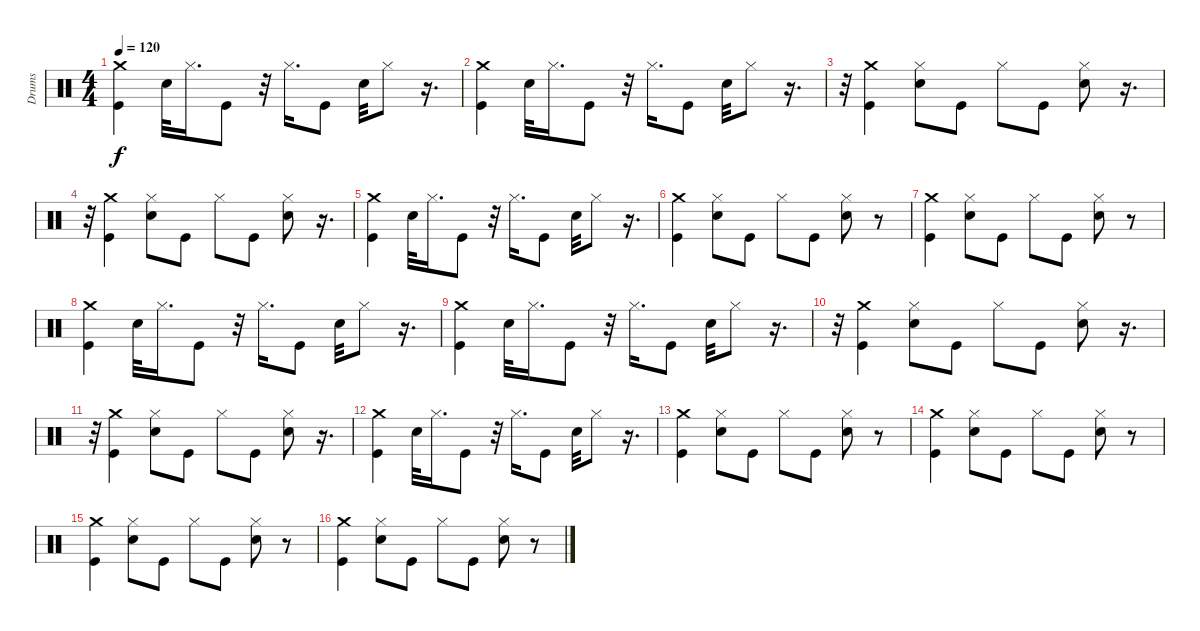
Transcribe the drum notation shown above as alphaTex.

\track ("Drums" "Drums") {instrument percussion}
\staff {score}
\articulation defaults
\ts (4 4)
\tempo 120
\clef neutral
\ks c
("Crash medium (hit)" "Kick (hit)").4{dy f} "Electric Snare (hit)".32 "Hi-Hat (closed)".16{d} "Kick (hit)".8 r.32 "Hi-Hat (closed)".16{d} "Kick (hit)".8 "Electric Snare (hit)".32 "Hi-Hat (closed)".8 r.16{d} |
("Crash medium (hit)" "Kick (hit)").4 "Electric Snare (hit)".32 "Hi-Hat (closed)".16{d} "Kick (hit)".8 r.32 "Hi-Hat (closed)".16{d} "Kick (hit)".8 "Electric Snare (hit)".32 "Hi-Hat (closed)".8 r.16{d} |
r.32 ("Crash medium (hit)" "Kick (hit)").4 ("Electric Snare (hit)" "Hi-Hat (closed)").8 "Kick (hit)".8 "Hi-Hat (closed)".8 "Kick (hit)".8 ("Electric Snare (hit)" "Hi-Hat (closed)").8 r.16{d} |
r.32 ("Crash medium (hit)" "Kick (hit)").4 ("Electric Snare (hit)" "Hi-Hat (closed)").8 "Kick (hit)".8 "Hi-Hat (closed)".8 "Kick (hit)".8 ("Electric Snare (hit)" "Hi-Hat (closed)").8 r.16{d} |
("Crash medium (hit)" "Kick (hit)").4 "Electric Snare (hit)".32 "Hi-Hat (closed)".16{d} "Kick (hit)".8 r.32 "Hi-Hat (closed)".16{d} "Kick (hit)".8 "Electric Snare (hit)".32 "Hi-Hat (closed)".8 r.16{d} |
("Crash medium (hit)" "Kick (hit)").4 ("Electric Snare (hit)" "Hi-Hat (closed)").8 "Kick (hit)".8 "Hi-Hat (closed)".8 "Kick (hit)".8 ("Electric Snare (hit)" "Hi-Hat (closed)").8 r.8 |
("Crash medium (hit)" "Kick (hit)").4 ("Electric Snare (hit)" "Hi-Hat (closed)").8 "Kick (hit)".8 "Hi-Hat (closed)".8 "Kick (hit)".8 ("Electric Snare (hit)" "Hi-Hat (closed)").8 r.8 |
("Crash medium (hit)" "Kick (hit)").4 "Electric Snare (hit)".32 "Hi-Hat (closed)".16{d} "Kick (hit)".8 r.32 "Hi-Hat (closed)".16{d} "Kick (hit)".8 "Electric Snare (hit)".32 "Hi-Hat (closed)".8 r.16{d} |
("Crash medium (hit)" "Kick (hit)").4 "Electric Snare (hit)".32 "Hi-Hat (closed)".16{d} "Kick (hit)".8 r.32 "Hi-Hat (closed)".16{d} "Kick (hit)".8 "Electric Snare (hit)".32 "Hi-Hat (closed)".8 r.16{d} |
r.32 ("Crash medium (hit)" "Kick (hit)").4 ("Electric Snare (hit)" "Hi-Hat (closed)").8 "Kick (hit)".8 "Hi-Hat (closed)".8 "Kick (hit)".8 ("Electric Snare (hit)" "Hi-Hat (closed)").8 r.16{d} |
r.32 ("Crash medium (hit)" "Kick (hit)").4 ("Electric Snare (hit)" "Hi-Hat (closed)").8 "Kick (hit)".8 "Hi-Hat (closed)".8 "Kick (hit)".8 ("Electric Snare (hit)" "Hi-Hat (closed)").8 r.16{d} |
("Crash medium (hit)" "Kick (hit)").4 "Electric Snare (hit)".32 "Hi-Hat (closed)".16{d} "Kick (hit)".8 r.32 "Hi-Hat (closed)".16{d} "Kick (hit)".8 "Electric Snare (hit)".32 "Hi-Hat (closed)".8 r.16{d} |
("Crash medium (hit)" "Kick (hit)").4 ("Electric Snare (hit)" "Hi-Hat (closed)").8 "Kick (hit)".8 "Hi-Hat (closed)".8 "Kick (hit)".8 ("Electric Snare (hit)" "Hi-Hat (closed)").8 r.8 |
("Crash medium (hit)" "Kick (hit)").4 ("Electric Snare (hit)" "Hi-Hat (closed)").8 "Kick (hit)".8 "Hi-Hat (closed)".8 "Kick (hit)".8 ("Electric Snare (hit)" "Hi-Hat (closed)").8 r.8 |
("Crash medium (hit)" "Kick (hit)").4 ("Electric Snare (hit)" "Hi-Hat (closed)").8 "Kick (hit)".8 "Hi-Hat (closed)".8 "Kick (hit)".8 ("Electric Snare (hit)" "Hi-Hat (closed)").8 r.8 |
("Crash medium (hit)" "Kick (hit)").4 ("Electric Snare (hit)" "Hi-Hat (closed)").8 "Kick (hit)".8 "Hi-Hat (closed)".8 "Kick (hit)".8 ("Electric Snare (hit)" "Hi-Hat (closed)").8 r.8
